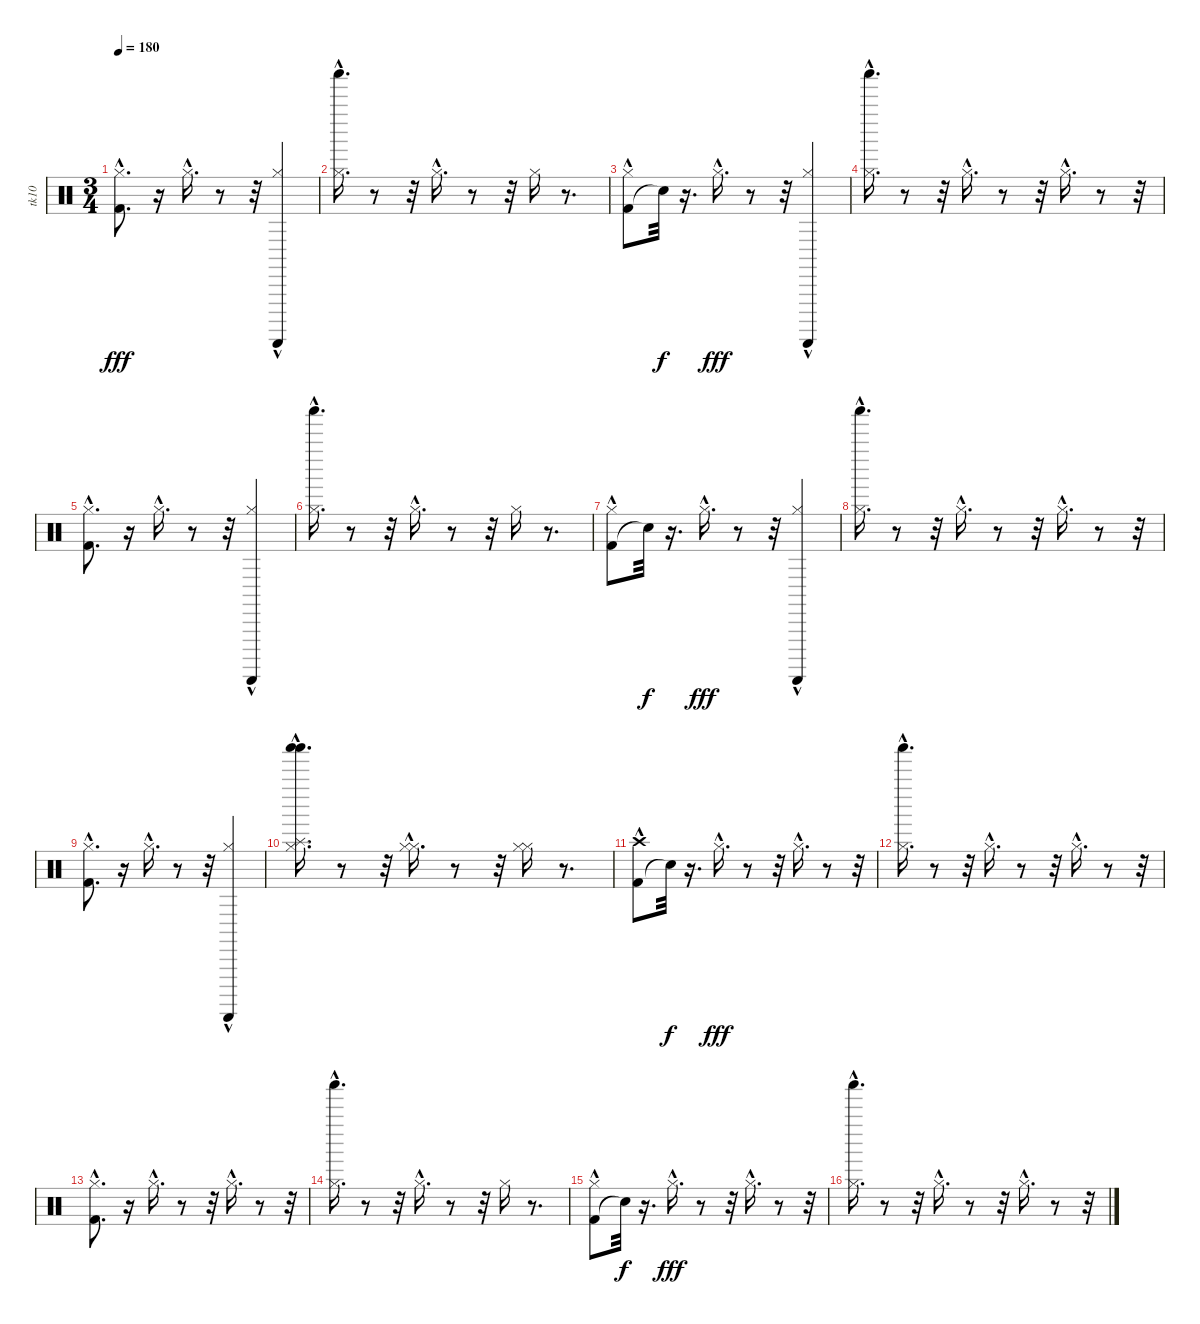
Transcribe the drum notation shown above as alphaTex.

\track ("tk10" "tk10") {instrument percussion}
\staff {score}
\articulation defaults
\ts (3 4)
\tempo 180
\clef neutral
\ks c
("Kick (hit) 2"{hac} "Hi-Hat (closed)"{hac}).8{d dy fff} r.16 "Hi-Hat (closed)"{hac}.16{d} r.8 r.32 ("Guiro (scrap-return)" "Hi-Hat (closed)"{hac}).4 |
("Shaker (hit)"{hac} "Hi-Hat (closed)"{hac}).16{d} r.8 r.32 "Hi-Hat (closed)"{hac}.16{d} r.8 r.32 "Hi-Hat (closed)".16 r.8{d} |
("Kick (hit) 2" "Hi-Hat (closed)"{hac}).8 "Snare (hit)"{t}.32{dy f} r.16{d} "Hi-Hat (closed)"{hac}.16{d dy fff} r.8 r.32 ("Guiro (scrap-return)"{hac} "Hi-Hat (closed)"{hac}).4 |
("Shaker (hit)"{hac} "Hi-Hat (closed)"{hac}).16{d} r.8 r.32 "Hi-Hat (closed)"{hac}.16{d} r.8 r.32 "Hi-Hat (closed)"{hac}.16{d} r.8 r.32 |
("Kick (hit) 2"{hac} "Hi-Hat (closed)"{hac}).8{d} r.16 "Hi-Hat (closed)"{hac}.16{d} r.8 r.32 ("Guiro (scrap-return)" "Hi-Hat (closed)"{hac}).4 |
("Shaker (hit)"{hac} "Hi-Hat (closed)"{hac}).16{d} r.8 r.32 "Hi-Hat (closed)"{hac}.16{d} r.8 r.32 "Hi-Hat (closed)".16 r.8{d} |
("Kick (hit) 2" "Hi-Hat (closed)"{hac}).8 "Snare (hit)"{t}.32{dy f} r.16{d} "Hi-Hat (closed)"{hac}.16{d dy fff} r.8 r.32 ("Guiro (scrap-return)" "Hi-Hat (closed)"{hac}).4 |
("Shaker (hit)"{hac} "Hi-Hat (closed)"{hac}).16{d} r.8 r.32 "Hi-Hat (closed)"{hac}.16{d} r.8 r.32 "Hi-Hat (closed)"{hac}.16{d} r.8 r.32 |
("Kick (hit) 2"{hac} "Hi-Hat (closed)"{hac}).8{d} r.16 "Hi-Hat (closed)"{hac}.16{d} r.8 r.32 ("Guiro (scrap-return)" "Hi-Hat (closed)"{hac}).4 |
("Shaker (hit)"{hac} "Shaker (hit)"{hac} "Splash (hit)"{hac} "Hi-Hat (closed)"{hac}).16{d} r.8 r.32 ("Hi-Hat (closed)"{hac} "Hi-Hat (closed)"{hac}).16{d} r.8 r.32 ("Hi-Hat (closed)" "Hi-Hat (closed)").16 r.8{d} |
("Kick (hit) 2" "Crash high (hit)"{hac}).8 "Snare (hit)"{t}.32{dy f} r.16{d} "Hi-Hat (closed)"{hac}.16{d dy fff} r.8 r.32 "Hi-Hat (closed)"{hac}.16{d} r.8 r.32 |
("Shaker (hit)"{hac} "Hi-Hat (closed)"{hac}).16{d} r.8 r.32 "Hi-Hat (closed)"{hac}.16{d} r.8 r.32 "Hi-Hat (closed)"{hac}.16{d} r.8 r.32 |
("Kick (hit) 2"{hac} "Hi-Hat (closed)"{hac}).8{d} r.16 "Hi-Hat (closed)"{hac}.16{d} r.8 r.32 "Hi-Hat (closed)"{hac}.16{d} r.8 r.32 |
("Shaker (hit)"{hac} "Hi-Hat (closed)"{hac}).16{d} r.8 r.32 "Hi-Hat (closed)"{hac}.16{d} r.8 r.32 "Hi-Hat (closed)".16 r.8{d} |
("Kick (hit) 2" "Hi-Hat (closed)"{hac}).8 "Snare (hit)"{t}.32{dy f} r.16{d} "Hi-Hat (closed)"{hac}.16{d dy fff} r.8 r.32 "Hi-Hat (closed)"{hac}.16{d} r.8 r.32 |
("Shaker (hit)"{hac} "Hi-Hat (closed)"{hac}).16{d} r.8 r.32 "Hi-Hat (closed)"{hac}.16{d} r.8 r.32 "Hi-Hat (closed)"{hac}.16{d} r.8 r.32
